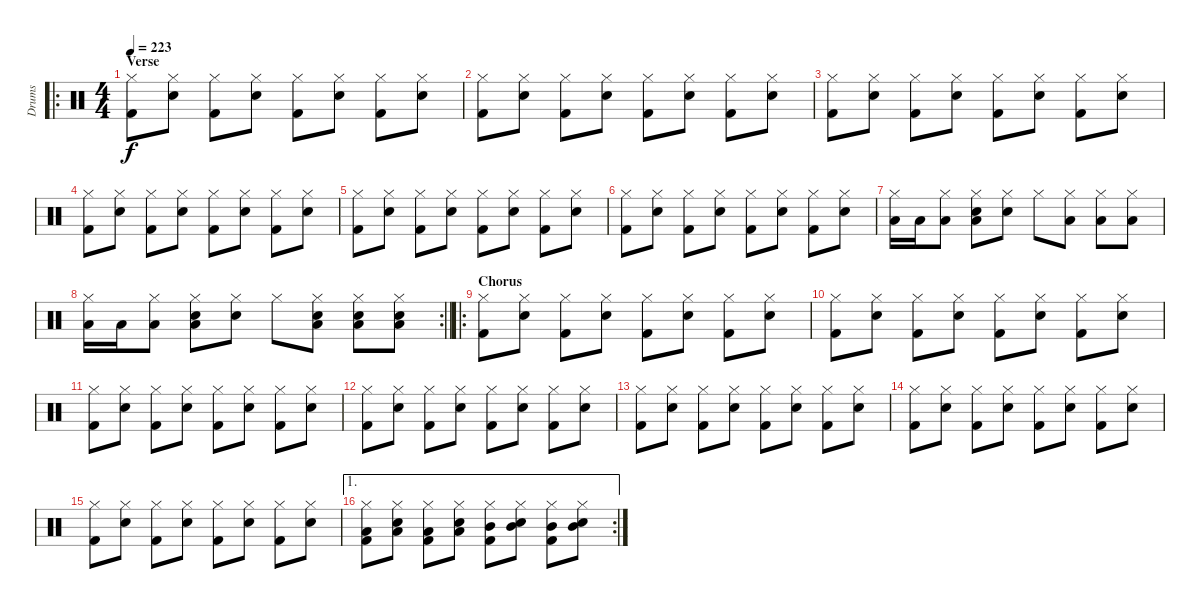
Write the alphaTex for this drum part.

\track ("Drums" "Drums") {instrument percussion}
\staff {score}
\articulation defaults
\ro
\ts (4 4)
\section ("" "Verse")
\tempo 223
\clef neutral
\ks c
("Hi-Hat (closed)" "Kick (hit) 2").8{dy f} ("Hi-Hat (closed)" "Snare (hit) 2").8 ("Hi-Hat (closed)" "Kick (hit) 2").8 ("Hi-Hat (closed)" "Snare (hit) 2").8 ("Hi-Hat (closed)" "Kick (hit) 2").8 ("Hi-Hat (closed)" "Snare (hit) 2").8 ("Hi-Hat (closed)" "Kick (hit) 2").8 ("Hi-Hat (closed)" "Snare (hit) 2").8 |
("Hi-Hat (closed)" "Kick (hit) 2").8 ("Hi-Hat (closed)" "Snare (hit) 2").8 ("Hi-Hat (closed)" "Kick (hit) 2").8 ("Hi-Hat (closed)" "Snare (hit) 2").8 ("Hi-Hat (closed)" "Kick (hit) 2").8 ("Hi-Hat (closed)" "Snare (hit) 2").8 ("Hi-Hat (closed)" "Kick (hit) 2").8 ("Hi-Hat (closed)" "Snare (hit) 2").8 |
("Hi-Hat (closed)" "Kick (hit) 2").8 ("Hi-Hat (closed)" "Snare (hit) 2").8 ("Hi-Hat (closed)" "Kick (hit) 2").8 ("Hi-Hat (closed)" "Snare (hit) 2").8 ("Hi-Hat (closed)" "Kick (hit) 2").8 ("Hi-Hat (closed)" "Snare (hit) 2").8 ("Hi-Hat (closed)" "Kick (hit) 2").8 ("Hi-Hat (closed)" "Snare (hit) 2").8 |
("Hi-Hat (closed)" "Kick (hit) 2").8 ("Hi-Hat (closed)" "Snare (hit) 2").8 ("Hi-Hat (closed)" "Kick (hit) 2").8 ("Hi-Hat (closed)" "Snare (hit) 2").8 ("Hi-Hat (closed)" "Kick (hit) 2").8 ("Hi-Hat (closed)" "Snare (hit) 2").8 ("Hi-Hat (closed)" "Kick (hit) 2").8 ("Hi-Hat (closed)" "Snare (hit) 2").8 |
("Hi-Hat (closed)" "Kick (hit) 2").8 ("Hi-Hat (closed)" "Snare (hit) 2").8 ("Hi-Hat (closed)" "Kick (hit) 2").8 ("Hi-Hat (closed)" "Snare (hit) 2").8 ("Hi-Hat (closed)" "Kick (hit) 2").8 ("Hi-Hat (closed)" "Snare (hit) 2").8 ("Hi-Hat (closed)" "Kick (hit) 2").8 ("Hi-Hat (closed)" "Snare (hit) 2").8 |
("Hi-Hat (closed)" "Kick (hit) 2").8 ("Hi-Hat (closed)" "Snare (hit) 2").8 ("Hi-Hat (closed)" "Kick (hit) 2").8 ("Hi-Hat (closed)" "Snare (hit) 2").8 ("Hi-Hat (closed)" "Kick (hit) 2").8 ("Hi-Hat (closed)" "Snare (hit) 2").8 ("Hi-Hat (closed)" "Kick (hit) 2").8 ("Hi-Hat (closed)" "Snare (hit) 2").8 |
("Hi-Hat (closed)" "Low Tom (hit)").16 "Low Tom (hit)".16 ("Hi-Hat (closed)" "Low Tom (hit)").8 ("Hi-Hat (closed)" "Low Tom (hit)" "Snare (hit) 2").8 ("Hi-Hat (closed)" "Snare (hit) 2").8 "Hi-Hat (closed)".8 ("Hi-Hat (closed)" "Low Tom (hit)").8 ("Hi-Hat (closed)" "Low Tom (hit)").8 ("Hi-Hat (closed)" "Low Tom (hit)").8 |
\rc 2
\barLineRight lightlight
("Hi-Hat (closed)" "Low Tom (hit)").16 "Low Tom (hit)".16 ("Hi-Hat (closed)" "Low Tom (hit)").8 ("Hi-Hat (closed)" "Low Tom (hit)" "Snare (hit) 2").8 ("Hi-Hat (closed)" "Snare (hit) 2").8 "Hi-Hat (closed)".8 ("Hi-Hat (closed)" "Low Tom (hit)" "Snare (hit) 2").8 ("Hi-Hat (closed)" "Low Tom (hit)" "Snare (hit) 2").8 ("Hi-Hat (closed)" "Low Tom (hit)" "Snare (hit) 2").8 |
\ro
\section ("" "Chorus")
("Hi-Hat (closed)" "Kick (hit) 2").8 ("Hi-Hat (closed)" "Snare (hit) 2").8 ("Hi-Hat (closed)" "Kick (hit) 2").8 ("Hi-Hat (closed)" "Snare (hit) 2").8 ("Hi-Hat (closed)" "Kick (hit) 2").8 ("Hi-Hat (closed)" "Snare (hit) 2").8 ("Hi-Hat (closed)" "Kick (hit) 2").8 ("Hi-Hat (closed)" "Snare (hit) 2").8 |
("Hi-Hat (closed)" "Kick (hit) 2").8 ("Hi-Hat (closed)" "Snare (hit) 2").8 ("Hi-Hat (closed)" "Kick (hit) 2").8 ("Hi-Hat (closed)" "Snare (hit) 2").8 ("Hi-Hat (closed)" "Kick (hit) 2").8 ("Hi-Hat (closed)" "Snare (hit) 2").8 ("Hi-Hat (closed)" "Kick (hit) 2").8 ("Hi-Hat (closed)" "Snare (hit) 2").8 |
("Hi-Hat (closed)" "Kick (hit) 2").8 ("Hi-Hat (closed)" "Snare (hit) 2").8 ("Hi-Hat (closed)" "Kick (hit) 2").8 ("Hi-Hat (closed)" "Snare (hit) 2").8 ("Hi-Hat (closed)" "Kick (hit) 2").8 ("Hi-Hat (closed)" "Snare (hit) 2").8 ("Hi-Hat (closed)" "Kick (hit) 2").8 ("Hi-Hat (closed)" "Snare (hit) 2").8 |
("Hi-Hat (closed)" "Kick (hit) 2").8 ("Hi-Hat (closed)" "Snare (hit) 2").8 ("Hi-Hat (closed)" "Kick (hit) 2").8 ("Hi-Hat (closed)" "Snare (hit) 2").8 ("Hi-Hat (closed)" "Kick (hit) 2").8 ("Hi-Hat (closed)" "Snare (hit) 2").8 ("Hi-Hat (closed)" "Kick (hit) 2").8 ("Hi-Hat (closed)" "Snare (hit) 2").8 |
("Hi-Hat (closed)" "Kick (hit) 2").8 ("Hi-Hat (closed)" "Snare (hit) 2").8 ("Hi-Hat (closed)" "Kick (hit) 2").8 ("Hi-Hat (closed)" "Snare (hit) 2").8 ("Hi-Hat (closed)" "Kick (hit) 2").8 ("Hi-Hat (closed)" "Snare (hit) 2").8 ("Hi-Hat (closed)" "Kick (hit) 2").8 ("Hi-Hat (closed)" "Snare (hit) 2").8 |
("Hi-Hat (closed)" "Kick (hit) 2").8 ("Hi-Hat (closed)" "Snare (hit) 2").8 ("Hi-Hat (closed)" "Kick (hit) 2").8 ("Hi-Hat (closed)" "Snare (hit) 2").8 ("Hi-Hat (closed)" "Kick (hit) 2").8 ("Hi-Hat (closed)" "Snare (hit) 2").8 ("Hi-Hat (closed)" "Kick (hit) 2").8 ("Hi-Hat (closed)" "Snare (hit) 2").8 |
("Hi-Hat (closed)" "Kick (hit) 2").8 ("Hi-Hat (closed)" "Snare (hit) 2").8 ("Hi-Hat (closed)" "Kick (hit) 2").8 ("Hi-Hat (closed)" "Snare (hit) 2").8 ("Hi-Hat (closed)" "Kick (hit) 2").8 ("Hi-Hat (closed)" "Snare (hit) 2").8 ("Hi-Hat (closed)" "Kick (hit) 2").8 ("Hi-Hat (closed)" "Snare (hit) 2").8 |
\ae 1
\rc 2
("Hi-Hat (closed)" "Low Tom (hit)" "Kick (hit) 2").8 ("Hi-Hat (closed)" "Low Tom (hit)" "Snare (hit) 2").8 ("Hi-Hat (closed)" "Low Tom (hit)" "Kick (hit) 2").8 ("Hi-Hat (closed)" "Low Tom (hit)" "Snare (hit) 2").8 ("Hi-Hat (closed)" "Mid Tom (hit)" "Kick (hit) 2").8 ("Hi-Hat (closed)" "Mid Tom (hit)" "Snare (hit) 2").8 ("Hi-Hat (closed)" "Mid Tom (hit)" "Kick (hit) 2").8 ("Hi-Hat (closed)" "Mid Tom (hit)" "Snare (hit) 2").8
